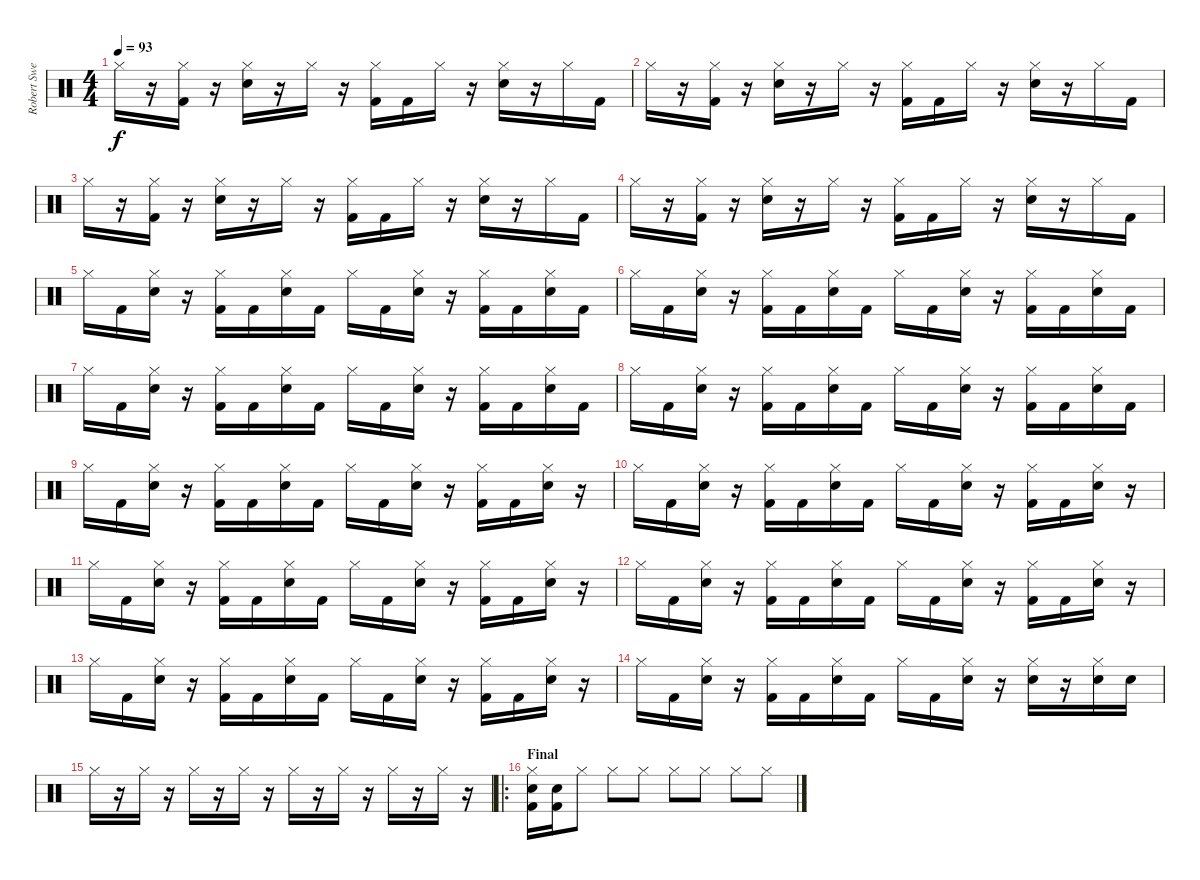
\track ("Robert Sweet" "Robert Swe") {instrument percussion}
\staff {score}
\articulation defaults
\ts (4 4)
\tempo 93
\clef neutral
\ks c "Hi-Hat (closed)".16{dy f}
r.16 ("Hi-Hat (closed)" "Kick (hit) 2").16 r.16 ("Hi-Hat (closed)" "Snare (hit) 2").16 r.16 "Hi-Hat (closed)".16 r.16 ("Hi-Hat (closed)" "Kick (hit) 2").16 "Kick (hit) 2".16 "Hi-Hat (closed)".16 r.16 ("Hi-Hat (closed)" "Snare (hit) 2").16 r.16 "Hi-Hat (closed)".16 "Kick (hit) 2".16 |
"Hi-Hat (closed)".16 r.16 ("Hi-Hat (closed)" "Kick (hit) 2").16 r.16 ("Hi-Hat (closed)" "Snare (hit) 2").16 r.16 "Hi-Hat (closed)".16 r.16 ("Hi-Hat (closed)" "Kick (hit) 2").16 "Kick (hit) 2".16 "Hi-Hat (closed)".16 r.16 ("Hi-Hat (closed)" "Snare (hit) 2").16 r.16 "Hi-Hat (closed)".16 "Kick (hit) 2".16 |
"Hi-Hat (closed)".16 r.16 ("Hi-Hat (closed)" "Kick (hit) 2").16 r.16 ("Hi-Hat (closed)" "Snare (hit) 2").16 r.16 "Hi-Hat (closed)".16 r.16 ("Hi-Hat (closed)" "Kick (hit) 2").16 "Kick (hit) 2".16 "Hi-Hat (closed)".16 r.16 ("Hi-Hat (closed)" "Snare (hit) 2").16 r.16 "Hi-Hat (closed)".16 "Kick (hit) 2".16 |
"Hi-Hat (closed)".16 r.16 ("Hi-Hat (closed)" "Kick (hit) 2").16 r.16 ("Hi-Hat (closed)" "Snare (hit) 2").16 r.16 "Hi-Hat (closed)".16 r.16 ("Hi-Hat (closed)" "Kick (hit) 2").16 "Kick (hit) 2".16 "Hi-Hat (closed)".16 r.16 ("Hi-Hat (closed)" "Snare (hit) 2").16 r.16 "Hi-Hat (closed)".16 "Kick (hit) 2".16 |
"Hi-Hat (closed)".16 "Kick (hit) 2".16 ("Hi-Hat (closed)" "Snare (hit) 2").16 r.16 ("Hi-Hat (closed)" "Kick (hit) 2").16 "Kick (hit) 2".16 ("Hi-Hat (closed)" "Snare (hit) 2").16 "Kick (hit) 2".16 "Hi-Hat (closed)".16 "Kick (hit) 2".16 ("Hi-Hat (closed)" "Snare (hit) 2").16 r.16 ("Hi-Hat (closed)" "Kick (hit) 2").16 "Kick (hit) 2".16 ("Hi-Hat (closed)" "Snare (hit) 2").16 "Kick (hit) 2".16 |
"Hi-Hat (closed)".16 "Kick (hit) 2".16 ("Hi-Hat (closed)" "Snare (hit) 2").16 r.16 ("Hi-Hat (closed)" "Kick (hit) 2").16 "Kick (hit) 2".16 ("Hi-Hat (closed)" "Snare (hit) 2").16 "Kick (hit) 2".16 "Hi-Hat (closed)".16 "Kick (hit) 2".16 ("Hi-Hat (closed)" "Snare (hit) 2").16 r.16 ("Hi-Hat (closed)" "Kick (hit) 2").16 "Kick (hit) 2".16 ("Hi-Hat (closed)" "Snare (hit) 2").16 "Kick (hit) 2".16 |
"Hi-Hat (closed)".16 "Kick (hit) 2".16 ("Hi-Hat (closed)" "Snare (hit) 2").16 r.16 ("Hi-Hat (closed)" "Kick (hit) 2").16 "Kick (hit) 2".16 ("Hi-Hat (closed)" "Snare (hit) 2").16 "Kick (hit) 2".16 "Hi-Hat (closed)".16 "Kick (hit) 2".16 ("Hi-Hat (closed)" "Snare (hit) 2").16 r.16 ("Hi-Hat (closed)" "Kick (hit) 2").16 "Kick (hit) 2".16 ("Hi-Hat (closed)" "Snare (hit) 2").16 "Kick (hit) 2".16 |
"Hi-Hat (closed)".16 "Kick (hit) 2".16 ("Hi-Hat (closed)" "Snare (hit) 2").16 r.16 ("Hi-Hat (closed)" "Kick (hit) 2").16 "Kick (hit) 2".16 ("Hi-Hat (closed)" "Snare (hit) 2").16 "Kick (hit) 2".16 "Hi-Hat (closed)".16 "Kick (hit) 2".16 ("Hi-Hat (closed)" "Snare (hit) 2").16 r.16 ("Hi-Hat (closed)" "Kick (hit) 2").16 "Kick (hit) 2".16 ("Hi-Hat (closed)" "Snare (hit) 2").16 "Kick (hit) 2".16 |
"Hi-Hat (closed)".16 "Kick (hit) 2".16 ("Hi-Hat (closed)" "Snare (hit) 2").16 r.16 ("Hi-Hat (closed)" "Kick (hit) 2").16 "Kick (hit) 2".16 ("Hi-Hat (closed)" "Snare (hit) 2").16 "Kick (hit) 2".16 "Hi-Hat (closed)".16 "Kick (hit) 2".16 ("Hi-Hat (closed)" "Snare (hit) 2").16 r.16 ("Hi-Hat (closed)" "Kick (hit) 2").16 "Kick (hit) 2".16 ("Hi-Hat (closed)" "Snare (hit) 2").16 r.16 |
"Hi-Hat (closed)".16 "Kick (hit) 2".16 ("Hi-Hat (closed)" "Snare (hit) 2").16 r.16 ("Hi-Hat (closed)" "Kick (hit) 2").16 "Kick (hit) 2".16 ("Hi-Hat (closed)" "Snare (hit) 2").16 "Kick (hit) 2".16 "Hi-Hat (closed)".16 "Kick (hit) 2".16 ("Hi-Hat (closed)" "Snare (hit) 2").16 r.16 ("Hi-Hat (closed)" "Kick (hit) 2").16 "Kick (hit) 2".16 ("Hi-Hat (closed)" "Snare (hit) 2").16 r.16 |
"Hi-Hat (closed)".16 "Kick (hit) 2".16 ("Hi-Hat (closed)" "Snare (hit) 2").16 r.16 ("Hi-Hat (closed)" "Kick (hit) 2").16 "Kick (hit) 2".16 ("Hi-Hat (closed)" "Snare (hit) 2").16 "Kick (hit) 2".16 "Hi-Hat (closed)".16 "Kick (hit) 2".16 ("Hi-Hat (closed)" "Snare (hit) 2").16 r.16 ("Hi-Hat (closed)" "Kick (hit) 2").16 "Kick (hit) 2".16 ("Hi-Hat (closed)" "Snare (hit) 2").16 r.16 |
"Hi-Hat (closed)".16 "Kick (hit) 2".16 ("Hi-Hat (closed)" "Snare (hit) 2").16 r.16 ("Hi-Hat (closed)" "Kick (hit) 2").16 "Kick (hit) 2".16 ("Hi-Hat (closed)" "Snare (hit) 2").16 "Kick (hit) 2".16 "Hi-Hat (closed)".16 "Kick (hit) 2".16 ("Hi-Hat (closed)" "Snare (hit) 2").16 r.16 ("Hi-Hat (closed)" "Kick (hit) 2").16 "Kick (hit) 2".16 ("Hi-Hat (closed)" "Snare (hit) 2").16 r.16 |
"Hi-Hat (closed)".16 "Kick (hit) 2".16 ("Hi-Hat (closed)" "Snare (hit) 2").16 r.16 ("Hi-Hat (closed)" "Kick (hit) 2").16 "Kick (hit) 2".16 ("Hi-Hat (closed)" "Snare (hit) 2").16 "Kick (hit) 2".16 "Hi-Hat (closed)".16 "Kick (hit) 2".16 ("Hi-Hat (closed)" "Snare (hit) 2").16 r.16 ("Hi-Hat (closed)" "Kick (hit) 2").16 "Kick (hit) 2".16 ("Hi-Hat (closed)" "Snare (hit) 2").16 r.16 |
"Hi-Hat (closed)".16 "Kick (hit) 2".16 ("Hi-Hat (closed)" "Snare (hit) 2").16 r.16 ("Hi-Hat (closed)" "Kick (hit) 2").16 "Kick (hit) 2".16 ("Hi-Hat (closed)" "Snare (hit) 2").16 "Kick (hit) 2".16 "Hi-Hat (closed)".16 "Kick (hit) 2".16 ("Hi-Hat (closed)" "Snare (hit) 2").16 r.16 ("Hi-Hat (closed)" "Snare (hit) 2").16 r.16 ("Hi-Hat (closed)" "Snare (hit) 2").16 "Snare (hit) 2".16 |
"Hi-Hat (closed)".16 r.16 "Hi-Hat (closed)".16 r.16 "Hi-Hat (closed)".16 r.16 "Hi-Hat (closed)".16 r.16 "Hi-Hat (closed)".16 r.16 "Hi-Hat (closed)".16 r.16 "Hi-Hat (closed)".16 r.16 "Hi-Hat (closed)".16 r.16 |
\ro
\section ("" "Final")
("Hi-Hat (closed)" "Kick (hit) 2" "Snare (hit) 2").16 ("Kick (hit) 2" "Snare (hit) 2").16 "Hi-Hat (closed)".8 "Hi-Hat (closed)".8 "Hi-Hat (closed)".8 "Hi-Hat (closed)".8 "Hi-Hat (closed)".8 "Hi-Hat (closed)".8 "Hi-Hat (closed)".8
